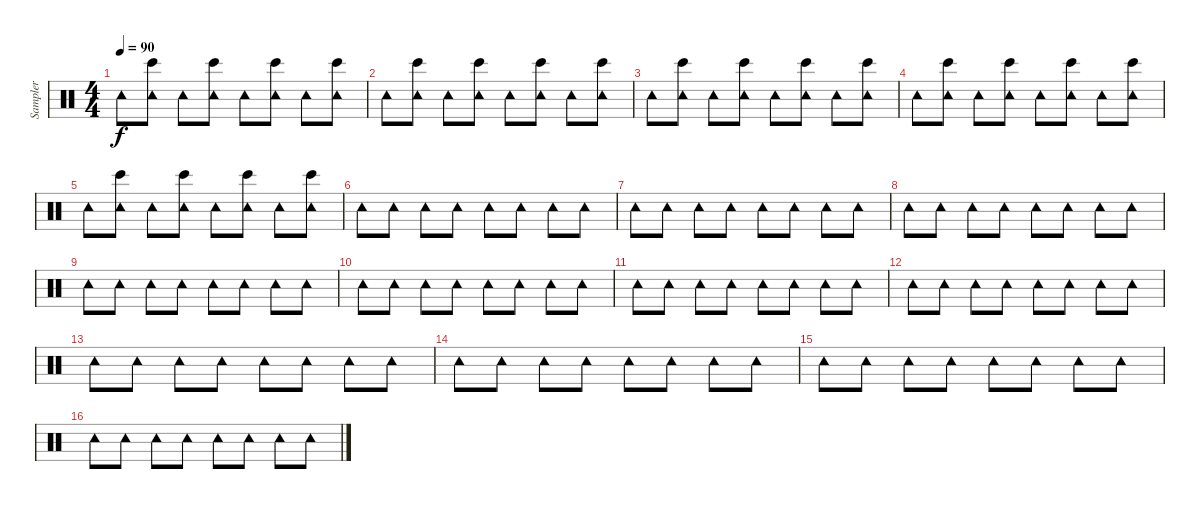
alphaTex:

\track ("Sampler" "Sampler") {instrument percussion}
\staff {score}
\articulation defaults
\ts (4 4)
\tempo 90
\clef neutral
\ks c "Tambourine (hit)".8{dy f}
("Tambourine (hit)" "Bongo High (hit)").8 "Tambourine (hit)".8 ("Tambourine (hit)" "Bongo High (hit)").8 "Tambourine (hit)".8 ("Tambourine (hit)" "Bongo High (hit)").8 "Tambourine (hit)".8 ("Tambourine (hit)" "Bongo High (hit)").8 |
"Tambourine (hit)".8 ("Tambourine (hit)" "Bongo High (hit)").8 "Tambourine (hit)".8 ("Tambourine (hit)" "Bongo High (hit)").8 "Tambourine (hit)".8 ("Tambourine (hit)" "Bongo High (hit)").8 "Tambourine (hit)".8 ("Tambourine (hit)" "Bongo High (hit)").8 |
"Tambourine (hit)".8 ("Tambourine (hit)" "Bongo High (hit)").8 "Tambourine (hit)".8 ("Tambourine (hit)" "Bongo High (hit)").8 "Tambourine (hit)".8 ("Tambourine (hit)" "Bongo High (hit)").8 "Tambourine (hit)".8 ("Tambourine (hit)" "Bongo High (hit)").8 |
"Tambourine (hit)".8 ("Tambourine (hit)" "Bongo High (hit)").8 "Tambourine (hit)".8 ("Tambourine (hit)" "Bongo High (hit)").8 "Tambourine (hit)".8 ("Tambourine (hit)" "Bongo High (hit)").8 "Tambourine (hit)".8 ("Tambourine (hit)" "Bongo High (hit)").8 |
"Tambourine (hit)".8 ("Tambourine (hit)" "Bongo High (hit)").8 "Tambourine (hit)".8 ("Tambourine (hit)" "Bongo High (hit)").8 "Tambourine (hit)".8 ("Tambourine (hit)" "Bongo High (hit)").8 "Tambourine (hit)".8 ("Tambourine (hit)" "Bongo High (hit)").8 |
"Tambourine (hit)".8 "Tambourine (hit)".8 "Tambourine (hit)".8 "Tambourine (hit)".8 "Tambourine (hit)".8 "Tambourine (hit)".8 "Tambourine (hit)".8 "Tambourine (hit)".8 |
"Tambourine (hit)".8 "Tambourine (hit)".8 "Tambourine (hit)".8 "Tambourine (hit)".8 "Tambourine (hit)".8 "Tambourine (hit)".8 "Tambourine (hit)".8 "Tambourine (hit)".8 |
"Tambourine (hit)".8 "Tambourine (hit)".8 "Tambourine (hit)".8 "Tambourine (hit)".8 "Tambourine (hit)".8 "Tambourine (hit)".8 "Tambourine (hit)".8 "Tambourine (hit)".8 |
"Tambourine (hit)".8 "Tambourine (hit)".8 "Tambourine (hit)".8 "Tambourine (hit)".8 "Tambourine (hit)".8 "Tambourine (hit)".8 "Tambourine (hit)".8 "Tambourine (hit)".8 |
"Tambourine (hit)".8 "Tambourine (hit)".8 "Tambourine (hit)".8 "Tambourine (hit)".8 "Tambourine (hit)".8 "Tambourine (hit)".8 "Tambourine (hit)".8 "Tambourine (hit)".8 |
"Tambourine (hit)".8 "Tambourine (hit)".8 "Tambourine (hit)".8 "Tambourine (hit)".8 "Tambourine (hit)".8 "Tambourine (hit)".8 "Tambourine (hit)".8 "Tambourine (hit)".8 |
"Tambourine (hit)".8 "Tambourine (hit)".8 "Tambourine (hit)".8 "Tambourine (hit)".8 "Tambourine (hit)".8 "Tambourine (hit)".8 "Tambourine (hit)".8 "Tambourine (hit)".8 |
"Tambourine (hit)".8 "Tambourine (hit)".8 "Tambourine (hit)".8 "Tambourine (hit)".8 "Tambourine (hit)".8 "Tambourine (hit)".8 "Tambourine (hit)".8 "Tambourine (hit)".8 |
"Tambourine (hit)".8 "Tambourine (hit)".8 "Tambourine (hit)".8 "Tambourine (hit)".8 "Tambourine (hit)".8 "Tambourine (hit)".8 "Tambourine (hit)".8 "Tambourine (hit)".8 |
"Tambourine (hit)".8 "Tambourine (hit)".8 "Tambourine (hit)".8 "Tambourine (hit)".8 "Tambourine (hit)".8 "Tambourine (hit)".8 "Tambourine (hit)".8 "Tambourine (hit)".8 |
"Tambourine (hit)".8 "Tambourine (hit)".8 "Tambourine (hit)".8 "Tambourine (hit)".8 "Tambourine (hit)".8 "Tambourine (hit)".8 "Tambourine (hit)".8 "Tambourine (hit)".8
